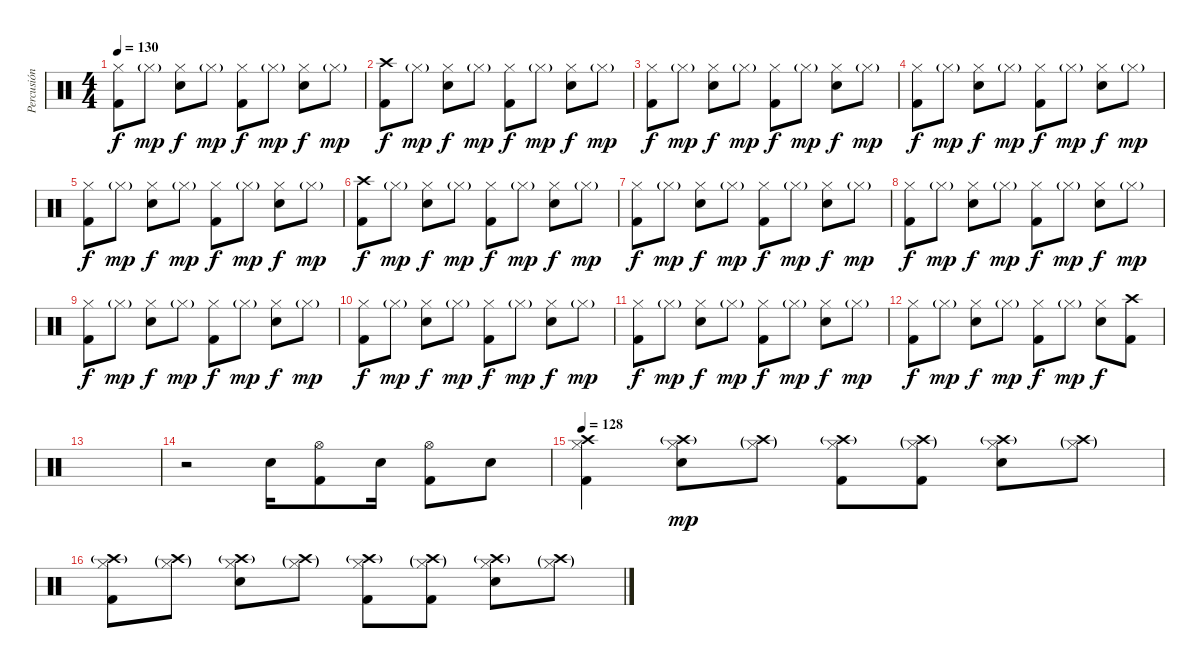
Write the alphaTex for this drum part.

\track ("Percusión" "Percusión") {instrument percussion}
\staff {score}
\articulation defaults
\ts (4 4)
\tempo 130
\clef neutral
\ks c
("Hi-Hat (closed)" "Kick (hit) 2").8{dy f} "Hi-Hat (closed)"{g}.8{dy mp} ("Hi-Hat (closed)" "Snare (hit) 2").8{dy f} "Hi-Hat (closed)"{g}.8{dy mp} ("Hi-Hat (closed)" "Kick (hit) 2").8{dy f} "Hi-Hat (closed)"{g}.8{dy mp} ("Hi-Hat (closed)" "Snare (hit) 2").8{dy f} "Hi-Hat (closed)"{g}.8{dy mp} |
("Crash high (hit)" "Kick (hit) 2").8{dy f} "Hi-Hat (closed)"{g}.8{dy mp} ("Hi-Hat (closed)" "Snare (hit) 2").8{dy f} "Hi-Hat (closed)"{g}.8{dy mp} ("Hi-Hat (closed)" "Kick (hit) 2").8{dy f} "Hi-Hat (closed)"{g}.8{dy mp} ("Hi-Hat (closed)" "Snare (hit) 2").8{dy f} "Hi-Hat (closed)"{g}.8{dy mp} |
("Hi-Hat (closed)" "Kick (hit) 2").8{dy f} "Hi-Hat (closed)"{g}.8{dy mp} ("Hi-Hat (closed)" "Snare (hit) 2").8{dy f} "Hi-Hat (closed)"{g}.8{dy mp} ("Hi-Hat (closed)" "Kick (hit) 2").8{dy f} "Hi-Hat (closed)"{g}.8{dy mp} ("Hi-Hat (closed)" "Snare (hit) 2").8{dy f} "Hi-Hat (closed)"{g}.8{dy mp} |
("Hi-Hat (closed)" "Kick (hit) 2").8{dy f} "Hi-Hat (closed)"{g}.8{dy mp} ("Hi-Hat (closed)" "Snare (hit) 2").8{dy f} "Hi-Hat (closed)"{g}.8{dy mp} ("Hi-Hat (closed)" "Kick (hit) 2").8{dy f} "Hi-Hat (closed)"{g}.8{dy mp} ("Hi-Hat (closed)" "Snare (hit) 2").8{dy f} "Hi-Hat (closed)"{g}.8{dy mp} |
("Hi-Hat (closed)" "Kick (hit) 2").8{dy f} "Hi-Hat (closed)"{g}.8{dy mp} ("Hi-Hat (closed)" "Snare (hit) 2").8{dy f} "Hi-Hat (closed)"{g}.8{dy mp} ("Hi-Hat (closed)" "Kick (hit) 2").8{dy f} "Hi-Hat (closed)"{g}.8{dy mp} ("Hi-Hat (closed)" "Snare (hit) 2").8{dy f} "Hi-Hat (closed)"{g}.8{dy mp} |
("Crash high (hit)" "Kick (hit) 2").8{dy f} "Hi-Hat (closed)"{g}.8{dy mp} ("Hi-Hat (closed)" "Snare (hit) 2").8{dy f} "Hi-Hat (closed)"{g}.8{dy mp} ("Hi-Hat (closed)" "Kick (hit) 2").8{dy f} "Hi-Hat (closed)"{g}.8{dy mp} ("Hi-Hat (closed)" "Snare (hit) 2").8{dy f} "Hi-Hat (closed)"{g}.8{dy mp} |
("Hi-Hat (closed)" "Kick (hit) 2").8{dy f} "Hi-Hat (closed)"{g}.8{dy mp} ("Hi-Hat (closed)" "Snare (hit) 2").8{dy f} "Hi-Hat (closed)"{g}.8{dy mp} ("Hi-Hat (closed)" "Kick (hit) 2").8{dy f} "Hi-Hat (closed)"{g}.8{dy mp} ("Hi-Hat (closed)" "Snare (hit) 2").8{dy f} "Hi-Hat (closed)"{g}.8{dy mp} |
("Hi-Hat (closed)" "Kick (hit) 2").8{dy f} "Hi-Hat (closed)"{g}.8{dy mp} ("Hi-Hat (closed)" "Snare (hit) 2").8{dy f} "Hi-Hat (closed)"{g}.8{dy mp} ("Hi-Hat (closed)" "Kick (hit) 2").8{dy f} "Hi-Hat (closed)"{g}.8{dy mp} ("Hi-Hat (closed)" "Snare (hit) 2").8{dy f} "Hi-Hat (closed)"{g}.8{dy mp} |
("Hi-Hat (closed)" "Kick (hit) 2").8{dy f} "Hi-Hat (closed)"{g}.8{dy mp} ("Hi-Hat (closed)" "Snare (hit) 2").8{dy f} "Hi-Hat (closed)"{g}.8{dy mp} ("Hi-Hat (closed)" "Kick (hit) 2").8{dy f} "Hi-Hat (closed)"{g}.8{dy mp} ("Hi-Hat (closed)" "Snare (hit) 2").8{dy f} "Hi-Hat (closed)"{g}.8{dy mp} |
("Hi-Hat (closed)" "Kick (hit) 2").8{dy f} "Hi-Hat (closed)"{g}.8{dy mp} ("Hi-Hat (closed)" "Snare (hit) 2").8{dy f} "Hi-Hat (closed)"{g}.8{dy mp} ("Hi-Hat (closed)" "Kick (hit) 2").8{dy f} "Hi-Hat (closed)"{g}.8{dy mp} ("Hi-Hat (closed)" "Snare (hit) 2").8{dy f} "Hi-Hat (closed)"{g}.8{dy mp} |
("Hi-Hat (closed)" "Kick (hit) 2").8{dy f} "Hi-Hat (closed)"{g}.8{dy mp} ("Hi-Hat (closed)" "Snare (hit) 2").8{dy f} "Hi-Hat (closed)"{g}.8{dy mp} ("Hi-Hat (closed)" "Kick (hit) 2").8{dy f} "Hi-Hat (closed)"{g}.8{dy mp} ("Hi-Hat (closed)" "Snare (hit) 2").8{dy f} "Hi-Hat (closed)"{g}.8{dy mp} |
("Hi-Hat (closed)" "Kick (hit) 2").8{dy f} "Hi-Hat (closed)"{g}.8{dy mp} ("Hi-Hat (closed)" "Snare (hit) 2").8{dy f} "Hi-Hat (closed)"{g}.8{dy mp} ("Hi-Hat (closed)" "Kick (hit) 2").8{dy f} "Hi-Hat (closed)"{g}.8{dy mp} ("Hi-Hat (closed)" "Snare (hit) 2").8{dy f} ("Crash high (hit)" "Kick (hit) 2").8 |
|
r.2 "Snare (hit) 2".16 ("Hi-Hat (open)" "Kick (hit) 2").8 "Snare (hit) 2".16 ("Hi-Hat (open)" "Kick (hit) 2").8 "Snare (hit) 2".8 |
\tempo 128
("Crash high (hit)" "Hi-Hat (closed)" "Kick (hit) 2").4 ("Crash high (hit)"{g} "Hi-Hat (closed)" "Snare (hit) 2").8{dy mp} ("Crash high (hit)"{g} "Hi-Hat (closed)"{g}).8 ("Crash high (hit)"{g} "Hi-Hat (closed)" "Kick (hit) 2").8 ("Crash high (hit)"{g} "Hi-Hat (closed)"{g} "Kick (hit) 2").8 ("Crash high (hit)"{g} "Hi-Hat (closed)" "Snare (hit) 2").8 ("Crash high (hit)"{g} "Hi-Hat (closed)"{g}).8 |
("Crash high (hit)"{g} "Hi-Hat (closed)" "Kick (hit) 2").8 ("Crash high (hit)"{g} "Hi-Hat (closed)"{g}).8 ("Crash high (hit)"{g} "Hi-Hat (closed)" "Snare (hit) 2").8 ("Crash high (hit)"{g} "Hi-Hat (closed)"{g}).8 ("Crash high (hit)"{g} "Hi-Hat (closed)" "Kick (hit) 2").8 ("Crash high (hit)"{g} "Hi-Hat (closed)"{g} "Kick (hit) 2").8 ("Crash high (hit)"{g} "Hi-Hat (closed)" "Snare (hit) 2").8 ("Crash high (hit)"{g} "Hi-Hat (closed)"{g}).8
